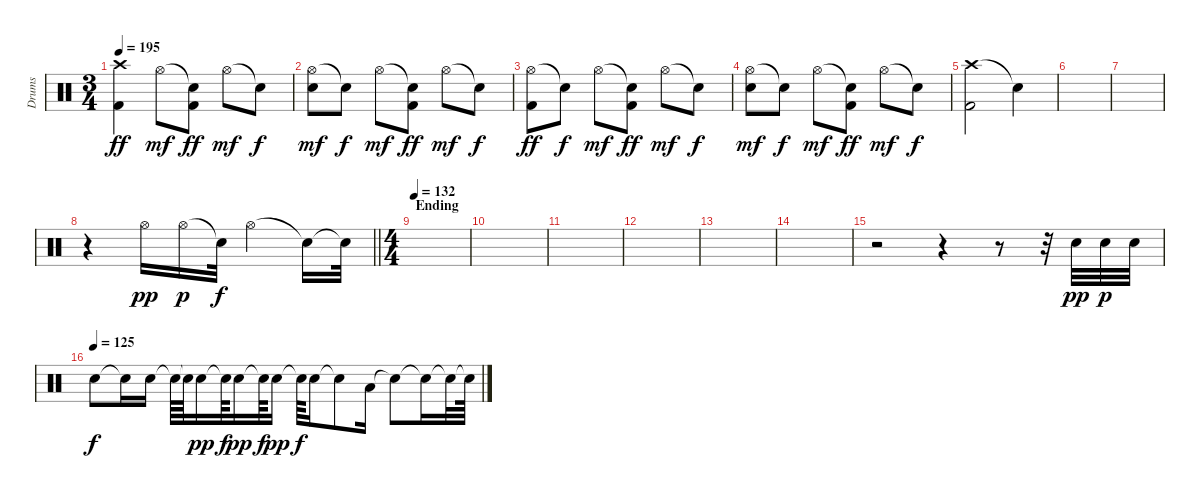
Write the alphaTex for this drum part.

\track ("Drums" "Drums") {instrument percussion}
\staff {score}
\articulation defaults
\ts (3 4)
\tempo 195
\clef neutral
\ks c
("Crash high (hit)" "Kick (hit) 2").4{dy ff} "Hi-Hat (open)".8{dy mf} ("Snare (hit)"{t} "Kick (hit) 2").8{dy ff} "Hi-Hat (open)".8{dy mf} "Snare (hit)"{t}.8{dy f} |
("Hi-Hat (open)" "Electric Snare (hit)").8{dy mf} "Snare (hit)"{t}.8{dy f} "Hi-Hat (open)".8{dy mf} ("Snare (hit)"{t} "Kick (hit) 2").8{dy ff} "Hi-Hat (open)".8{dy mf} "Snare (hit)"{t}.8{dy f} |
("Hi-Hat (open)" "Kick (hit) 2").8{dy ff} "Snare (hit)"{t}.8{dy f} "Hi-Hat (open)".8{dy mf} ("Snare (hit)"{t} "Kick (hit) 2").8{dy ff} "Hi-Hat (open)".8{dy mf} "Snare (hit)"{t}.8{dy f} |
("Hi-Hat (open)" "Electric Snare (hit)").8{dy mf} "Snare (hit)"{t}.8{dy f} "Hi-Hat (open)".8{dy mf} ("Snare (hit)"{t} "Kick (hit) 2").8{dy ff} "Hi-Hat (open)".8{dy mf} "Snare (hit)"{t}.8{dy f} |
("Crash high (hit)" "Kick (hit) 2").2 "Snare (hit)"{t}.4 |
|
|
\barLineRight lightlight
r.4 "Hi-Hat (open)".16{dy pp} "Hi-Hat (open)".16{dy p} "Snare (hit)"{t}.32{dy f} "Hi-Hat (open)".4 "Snare (hit)"{t}.16 "Snare (hit)"{t}.32 |
\ts (4 4)
\section ("" "Ending")
\tempo 132
|
|
|
|
|
|
r.2 r.4 r.8 r.32 "Electric Snare (hit)".32{dy pp} "Electric Snare (hit)".32{dy p} "Electric Snare (hit)".32 |
\tempo (125)
"Electric Snare (hit)".8{dy f} "Snare (hit)"{t}.16 "Electric Snare (hit)".16 "Snare (hit)"{t}.64 "Snare (hit)"{t}.64 "Electric Snare (hit)".16{dy pp} "Snare (hit)"{t}.64{dy f} "Electric Snare (hit)".16{dy pp} "Snare (hit)"{t}.64{dy f} "Electric Snare (hit)".16{dy pp} "Snare (hit)"{t}.64{dy f} "Electric Snare (hit)".16 "Snare (hit)"{t}.8 "Low Tom (hit)".16 "Snare (hit)"{t}.8 "Snare (hit)"{t}.16 "Snare (hit)"{t}.32 "Snare (hit)"{t}.64
